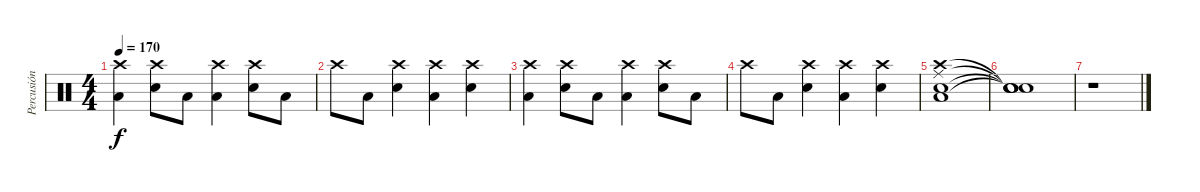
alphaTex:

\track ("Percusión" "Percusión") {instrument percussion}
\staff {score}
\articulation defaults
\ts (4 4)
\tempo 170
\clef neutral
\ks c
("Low Floor Tom (hit)" "Crash high (hit)").4{dy f} ("Snare (hit) 2" "Crash high (hit)").8 "Low Floor Tom (hit)".8 ("Low Floor Tom (hit)" "Crash high (hit)").4 ("Snare (hit) 2" "Crash high (hit)").8 "Low Floor Tom (hit)".8 |
"Crash high (hit)".8 "Low Floor Tom (hit)".8 ("Snare (hit) 2" "Crash high (hit)").4 ("Low Floor Tom (hit)" "Crash high (hit)").4 ("Snare (hit) 2" "Crash high (hit)").4 |
("Low Floor Tom (hit)" "Crash high (hit)").4 ("Snare (hit) 2" "Crash high (hit)").8 "Low Floor Tom (hit)".8 ("Low Floor Tom (hit)" "Crash high (hit)").4 ("Snare (hit) 2" "Crash high (hit)").8 "Low Floor Tom (hit)".8 |
"Crash high (hit)".8 "Low Floor Tom (hit)".8 ("Snare (hit) 2" "Crash high (hit)").4 ("Low Floor Tom (hit)" "Crash high (hit)").4 ("Snare (hit) 2" "Crash high (hit)").4 |
("Low Floor Tom (hit)" "Snare (hit) 2" "Ride (middle)" "Crash high (hit)").1 |
("Snare (hit)"{t} "Snare (hit)"{t} "Snare (hit)"{t} "Snare (hit)"{t}).1 |
r.1
